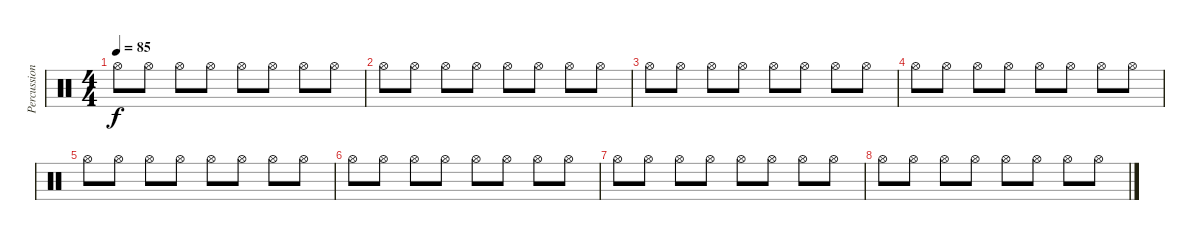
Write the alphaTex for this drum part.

\track ("Percussion" "Percussion") {instrument percussion}
\staff {score}
\articulation defaults
\ts (4 4)
\tempo 85
\clef neutral
\ks c "Hi-Hat (open)".8{dy f volume 3 balance 12} "Hi-Hat (open)".8 "Hi-Hat (open)".8 "Hi-Hat (open)".8 "Hi-Hat (open)".8 "Hi-Hat (open)".8 "Hi-Hat (open)".8 "Hi-Hat (open)".8
|
"Hi-Hat (open)".8 "Hi-Hat (open)".8 "Hi-Hat (open)".8 "Hi-Hat (open)".8 "Hi-Hat (open)".8 "Hi-Hat (open)".8 "Hi-Hat (open)".8 "Hi-Hat (open)".8 |
"Hi-Hat (open)".8 "Hi-Hat (open)".8 "Hi-Hat (open)".8 "Hi-Hat (open)".8 "Hi-Hat (open)".8 "Hi-Hat (open)".8 "Hi-Hat (open)".8 "Hi-Hat (open)".8 |
"Hi-Hat (open)".8 "Hi-Hat (open)".8 "Hi-Hat (open)".8 "Hi-Hat (open)".8 "Hi-Hat (open)".8 "Hi-Hat (open)".8 "Hi-Hat (open)".8 "Hi-Hat (open)".8 |
"Hi-Hat (open)".8 "Hi-Hat (open)".8 "Hi-Hat (open)".8 "Hi-Hat (open)".8 "Hi-Hat (open)".8 "Hi-Hat (open)".8 "Hi-Hat (open)".8 "Hi-Hat (open)".8 |
"Hi-Hat (open)".8 "Hi-Hat (open)".8 "Hi-Hat (open)".8 "Hi-Hat (open)".8 "Hi-Hat (open)".8 "Hi-Hat (open)".8 "Hi-Hat (open)".8 "Hi-Hat (open)".8 |
"Hi-Hat (open)".8 "Hi-Hat (open)".8 "Hi-Hat (open)".8 "Hi-Hat (open)".8 "Hi-Hat (open)".8 "Hi-Hat (open)".8 "Hi-Hat (open)".8 "Hi-Hat (open)".8 |
"Hi-Hat (open)".8 "Hi-Hat (open)".8 "Hi-Hat (open)".8 "Hi-Hat (open)".8 "Hi-Hat (open)".8 "Hi-Hat (open)".8 "Hi-Hat (open)".8 "Hi-Hat (open)".8
